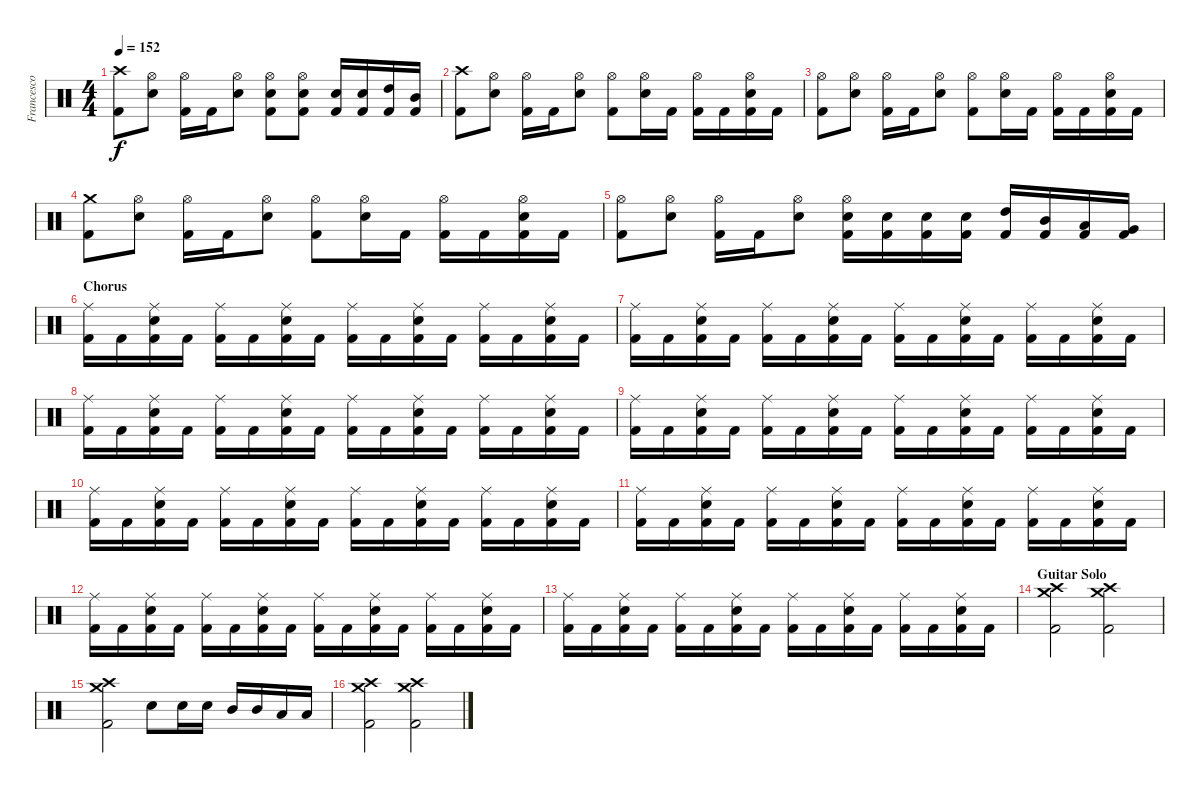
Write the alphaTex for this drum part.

\track ("Francesco Tresa" "Francesco ") {instrument percussion}
\staff {score}
\articulation defaults
\ts (4 4)
\tempo 152
\clef neutral
\ks c
("Kick (hit) 2" "Crash high (hit)").8{dy f} ("Snare (hit) 2" "Hi-Hat (open)").8 ("Kick (hit) 2" "Hi-Hat (open)").16 "Kick (hit) 2".16 ("Snare (hit) 2" "Hi-Hat (open)").8 ("Kick (hit) 2" "Snare (hit) 2" "Hi-Hat (open)").8 ("Kick (hit) 2" "Snare (hit) 2" "Hi-Hat (open)").8 ("Kick (hit) 2" "Snare (hit) 2").16 ("Kick (hit) 2" "Snare (hit) 2").16 ("Kick (hit) 2" "High Tom (hit)").16 ("Kick (hit) 2" "Mid Tom (hit)").16 |
("Kick (hit) 2" "Crash high (hit)").8 ("Snare (hit) 2" "Hi-Hat (open)").8 ("Kick (hit) 2" "Hi-Hat (open)").16 "Kick (hit) 2".16 ("Snare (hit) 2" "Hi-Hat (open)").8 ("Kick (hit) 2" "Hi-Hat (open)").8 ("Snare (hit) 2" "Hi-Hat (open)").16 "Kick (hit) 2".16 ("Kick (hit) 2" "Hi-Hat (open)").16 "Kick (hit) 2".16 ("Kick (hit) 2" "Snare (hit) 2" "Hi-Hat (open)").16 "Kick (hit) 2".16 |
("Kick (hit) 2" "Hi-Hat (open)").8 ("Snare (hit) 2" "Hi-Hat (open)").8 ("Kick (hit) 2" "Hi-Hat (open)").16 "Kick (hit) 2".16 ("Snare (hit) 2" "Hi-Hat (open)").8 ("Kick (hit) 2" "Hi-Hat (open)").8 ("Snare (hit) 2" "Hi-Hat (open)").16 "Kick (hit) 2".16 ("Kick (hit) 2" "Hi-Hat (open)").16 "Kick (hit) 2".16 ("Kick (hit) 2" "Snare (hit) 2" "Hi-Hat (open)").16 "Kick (hit) 2".16 |
("Kick (hit) 2" "Crash medium (hit)").8 ("Snare (hit) 2" "Hi-Hat (open)").8 ("Kick (hit) 2" "Hi-Hat (open)").16 "Kick (hit) 2".16 ("Snare (hit) 2" "Hi-Hat (open)").8 ("Kick (hit) 2" "Hi-Hat (open)").8 ("Snare (hit) 2" "Hi-Hat (open)").16 "Kick (hit) 2".16 ("Kick (hit) 2" "Hi-Hat (open)").16 "Kick (hit) 2".16 ("Kick (hit) 2" "Snare (hit) 2" "Hi-Hat (open)").16 "Kick (hit) 2".16 |
("Kick (hit) 2" "Hi-Hat (open)").8 ("Snare (hit) 2" "Hi-Hat (open)").8 ("Kick (hit) 2" "Hi-Hat (open)").16 "Kick (hit) 2".16 ("Snare (hit) 2" "Hi-Hat (open)").8 ("Kick (hit) 2" "Snare (hit) 2" "Hi-Hat (open)").16 ("Kick (hit) 2" "Snare (hit) 2").16 ("Kick (hit) 2" "Snare (hit) 2").16 ("Kick (hit) 2" "Snare (hit) 2").16 ("Kick (hit) 2" "High Tom (hit)").16 ("Kick (hit) 2" "Mid Tom (hit)").16 ("Kick (hit) 2" "Low Tom (hit)").16 ("Kick (hit) 2" "Very Low Tom (hit)").16 |
\section ("" "Chorus")
("Kick (hit) 2" "Ride (middle)").16 "Kick (hit) 2".16 ("Kick (hit) 2" "Snare (hit) 2" "Ride (middle)").16 "Kick (hit) 2".16 ("Kick (hit) 2" "Ride (middle)").16 "Kick (hit) 2".16 ("Kick (hit) 2" "Snare (hit) 2" "Ride (middle)").16 "Kick (hit) 2".16 ("Kick (hit) 2" "Ride (middle)").16 "Kick (hit) 2".16 ("Kick (hit) 2" "Snare (hit) 2" "Ride (middle)").16 "Kick (hit) 2".16 ("Kick (hit) 2" "Ride (middle)").16 "Kick (hit) 2".16 ("Kick (hit) 2" "Snare (hit) 2" "Ride (middle)").16 "Kick (hit) 2".16 |
("Kick (hit) 2" "Ride (middle)").16 "Kick (hit) 2".16 ("Kick (hit) 2" "Snare (hit) 2" "Ride (middle)").16 "Kick (hit) 2".16 ("Kick (hit) 2" "Ride (middle)").16 "Kick (hit) 2".16 ("Kick (hit) 2" "Snare (hit) 2" "Ride (middle)").16 "Kick (hit) 2".16 ("Kick (hit) 2" "Ride (middle)").16 "Kick (hit) 2".16 ("Kick (hit) 2" "Snare (hit) 2" "Ride (middle)").16 "Kick (hit) 2".16 ("Kick (hit) 2" "Ride (middle)").16 "Kick (hit) 2".16 ("Kick (hit) 2" "Snare (hit) 2" "Ride (middle)").16 "Kick (hit) 2".16 |
("Kick (hit) 2" "Ride (middle)").16 "Kick (hit) 2".16 ("Kick (hit) 2" "Snare (hit) 2" "Ride (middle)").16 "Kick (hit) 2".16 ("Kick (hit) 2" "Ride (middle)").16 "Kick (hit) 2".16 ("Kick (hit) 2" "Snare (hit) 2" "Ride (middle)").16 "Kick (hit) 2".16 ("Kick (hit) 2" "Ride (middle)").16 "Kick (hit) 2".16 ("Kick (hit) 2" "Snare (hit) 2" "Ride (middle)").16 "Kick (hit) 2".16 ("Kick (hit) 2" "Ride (middle)").16 "Kick (hit) 2".16 ("Kick (hit) 2" "Snare (hit) 2" "Ride (middle)").16 "Kick (hit) 2".16 |
("Kick (hit) 2" "Ride (middle)").16 "Kick (hit) 2".16 ("Kick (hit) 2" "Snare (hit) 2" "Ride (middle)").16 "Kick (hit) 2".16 ("Kick (hit) 2" "Ride (middle)").16 "Kick (hit) 2".16 ("Kick (hit) 2" "Snare (hit) 2" "Ride (middle)").16 "Kick (hit) 2".16 ("Kick (hit) 2" "Ride (middle)").16 "Kick (hit) 2".16 ("Kick (hit) 2" "Snare (hit) 2" "Ride (middle)").16 "Kick (hit) 2".16 ("Kick (hit) 2" "Ride (middle)").16 "Kick (hit) 2".16 ("Kick (hit) 2" "Snare (hit) 2" "Ride (middle)").16 "Kick (hit) 2".16 |
("Kick (hit) 2" "Ride (middle)").16 "Kick (hit) 2".16 ("Kick (hit) 2" "Snare (hit) 2" "Ride (middle)").16 "Kick (hit) 2".16 ("Kick (hit) 2" "Ride (middle)").16 "Kick (hit) 2".16 ("Kick (hit) 2" "Snare (hit) 2" "Ride (middle)").16 "Kick (hit) 2".16 ("Kick (hit) 2" "Ride (middle)").16 "Kick (hit) 2".16 ("Kick (hit) 2" "Snare (hit) 2" "Ride (middle)").16 "Kick (hit) 2".16 ("Kick (hit) 2" "Ride (middle)").16 "Kick (hit) 2".16 ("Kick (hit) 2" "Snare (hit) 2" "Ride (middle)").16 "Kick (hit) 2".16 |
("Kick (hit) 2" "Ride (middle)").16 "Kick (hit) 2".16 ("Kick (hit) 2" "Snare (hit) 2" "Ride (middle)").16 "Kick (hit) 2".16 ("Kick (hit) 2" "Ride (middle)").16 "Kick (hit) 2".16 ("Kick (hit) 2" "Snare (hit) 2" "Ride (middle)").16 "Kick (hit) 2".16 ("Kick (hit) 2" "Ride (middle)").16 "Kick (hit) 2".16 ("Kick (hit) 2" "Snare (hit) 2" "Ride (middle)").16 "Kick (hit) 2".16 ("Kick (hit) 2" "Ride (middle)").16 "Kick (hit) 2".16 ("Kick (hit) 2" "Snare (hit) 2" "Ride (middle)").16 "Kick (hit) 2".16 |
("Kick (hit) 2" "Ride (middle)").16 "Kick (hit) 2".16 ("Kick (hit) 2" "Snare (hit) 2" "Ride (middle)").16 "Kick (hit) 2".16 ("Kick (hit) 2" "Ride (middle)").16 "Kick (hit) 2".16 ("Kick (hit) 2" "Snare (hit) 2" "Ride (middle)").16 "Kick (hit) 2".16 ("Kick (hit) 2" "Ride (middle)").16 "Kick (hit) 2".16 ("Kick (hit) 2" "Snare (hit) 2" "Ride (middle)").16 "Kick (hit) 2".16 ("Kick (hit) 2" "Ride (middle)").16 "Kick (hit) 2".16 ("Kick (hit) 2" "Snare (hit) 2" "Ride (middle)").16 "Kick (hit) 2".16 |
("Kick (hit) 2" "Ride (middle)").16 "Kick (hit) 2".16 ("Kick (hit) 2" "Snare (hit) 2" "Ride (middle)").16 "Kick (hit) 2".16 ("Kick (hit) 2" "Ride (middle)").16 "Kick (hit) 2".16 ("Kick (hit) 2" "Snare (hit) 2" "Ride (middle)").16 "Kick (hit) 2".16 ("Kick (hit) 2" "Ride (middle)").16 "Kick (hit) 2".16 ("Kick (hit) 2" "Snare (hit) 2" "Ride (middle)").16 "Kick (hit) 2".16 ("Kick (hit) 2" "Ride (middle)").16 "Kick (hit) 2".16 ("Kick (hit) 2" "Snare (hit) 2" "Ride (middle)").16 "Kick (hit) 2".16 |
\section ("" "Guitar Solo")
("Kick (hit) 2" "Crash medium (hit)" "Crash high (hit)").2 ("Kick (hit) 2" "Crash medium (hit)" "Crash high (hit)").2 |
("Kick (hit) 2" "Crash medium (hit)" "Crash high (hit)").2 "Snare (hit) 2".8 "Snare (hit) 2".16 "Snare (hit) 2".16 "Mid Tom (hit)".16 "Mid Tom (hit)".16 "Low Tom (hit)".16 "Low Tom (hit)".16 |
("Kick (hit) 2" "Crash medium (hit)" "Crash high (hit)").2 ("Kick (hit) 2" "Crash medium (hit)" "Crash high (hit)").2
